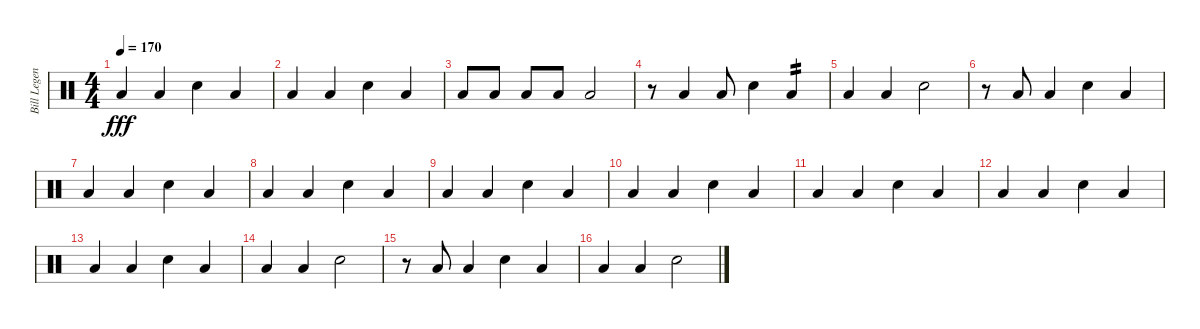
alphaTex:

\track ("Bill Legend" "Bill Legen") {instrument percussion}
\staff {score}
\articulation defaults
\ts (4 4)
\tempo 170
\clef neutral
\ks c "Low Floor Tom (hit)".4{dy fff} "Low Floor Tom (hit)".4 "Electric Snare (hit)".4 "Low Floor Tom (hit)".4
|
"Low Floor Tom (hit)".4 "Low Floor Tom (hit)".4 "Electric Snare (hit)".4 "Low Floor Tom (hit)".4 |
"Low Floor Tom (hit)".8 "Low Floor Tom (hit)".8 "Low Floor Tom (hit)".8 "Low Floor Tom (hit)".8 "Low Floor Tom (hit)".2 |
r.8 "Low Floor Tom (hit)".4 "Low Floor Tom (hit)".8 "Electric Snare (hit)".4 "Low Floor Tom (hit)".4{tp 2} |
"Low Floor Tom (hit)".4 "Low Floor Tom (hit)".4 "Electric Snare (hit)".2 |
r.8 "Low Floor Tom (hit)".8 "Low Floor Tom (hit)".4 "Electric Snare (hit)".4 "Low Floor Tom (hit)".4 |
"Low Floor Tom (hit)".4 "Low Floor Tom (hit)".4 "Electric Snare (hit)".4 "Low Floor Tom (hit)".4 |
"Low Floor Tom (hit)".4 "Low Floor Tom (hit)".4 "Electric Snare (hit)".4 "Low Floor Tom (hit)".4 |
"Low Floor Tom (hit)".4 "Low Floor Tom (hit)".4 "Electric Snare (hit)".4 "Low Floor Tom (hit)".4 |
"Low Floor Tom (hit)".4 "Low Floor Tom (hit)".4 "Electric Snare (hit)".4 "Low Floor Tom (hit)".4 |
"Low Floor Tom (hit)".4 "Low Floor Tom (hit)".4 "Electric Snare (hit)".4 "Low Floor Tom (hit)".4 |
"Low Floor Tom (hit)".4 "Low Floor Tom (hit)".4 "Electric Snare (hit)".4 "Low Floor Tom (hit)".4 |
"Low Floor Tom (hit)".4 "Low Floor Tom (hit)".4 "Electric Snare (hit)".4 "Low Floor Tom (hit)".4 |
"Low Floor Tom (hit)".4 "Low Floor Tom (hit)".4 "Electric Snare (hit)".2 |
r.8 "Low Floor Tom (hit)".8 "Low Floor Tom (hit)".4 "Electric Snare (hit)".4 "Low Floor Tom (hit)".4 |
"Low Floor Tom (hit)".4 "Low Floor Tom (hit)".4 "Electric Snare (hit)".2
